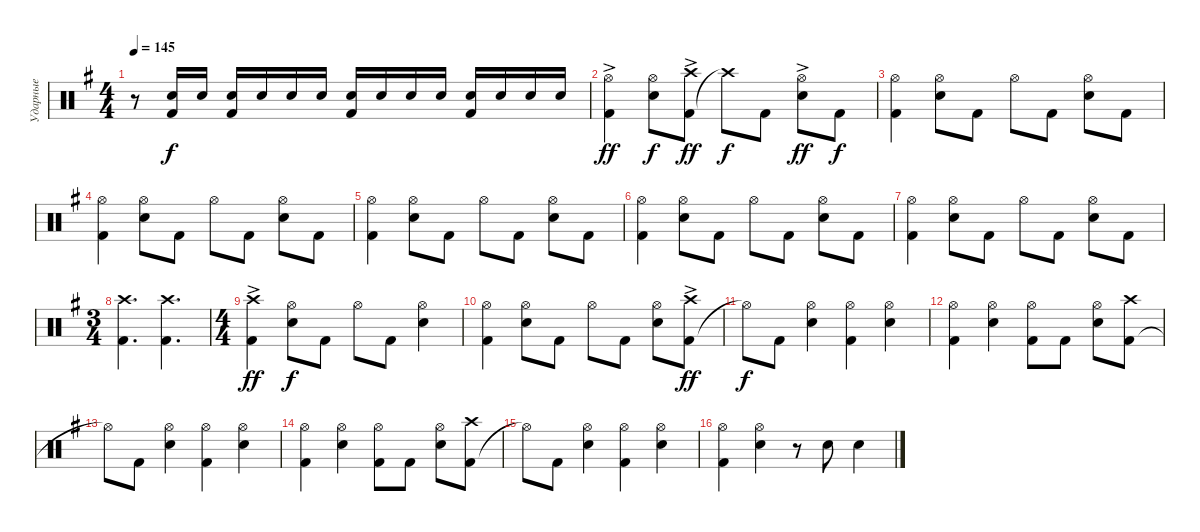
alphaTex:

\track ("Ударные" "Ударные") {instrument percussion}
\staff {score}
\articulation defaults
\ts (4 4)
\tempo 145
\clef neutral
\ks g
r.8{dy f} ("Kick (hit) 2" "Electric Snare (hit)").16 "Electric Snare (hit)".16 ("Kick (hit) 2" "Electric Snare (hit)").16 "Electric Snare (hit)".16 "Electric Snare (hit)".16 "Electric Snare (hit)".16 ("Kick (hit) 2" "Electric Snare (hit)").16 "Electric Snare (hit)".16 "Electric Snare (hit)".16 "Electric Snare (hit)".16 ("Kick (hit) 2" "Electric Snare (hit)").16 "Electric Snare (hit)".16 "Electric Snare (hit)".16 "Electric Snare (hit)".16 |
("Kick (hit) 2" "Hi-Hat (open)"{ac}).4{dy ff} ("Snare (hit) 2" "Hi-Hat (open)").8{dy f} ("Kick (hit) 2" "Crash high (hit)"{ac}).8{dy ff} "Crash high (hit)"{t}.8{dy f} "Kick (hit) 2".8 ("Snare (hit) 2" "Hi-Hat (open)"{ac}).8{dy ff} "Kick (hit) 2".8{dy f} |
("Kick (hit) 2" "Hi-Hat (open)").4 ("Snare (hit) 2" "Hi-Hat (open)").8 "Kick (hit) 2".8 "Hi-Hat (open)".8 "Kick (hit) 2".8 ("Snare (hit) 2" "Hi-Hat (open)").8 "Kick (hit) 2".8 |
("Kick (hit) 2" "Hi-Hat (open)").4 ("Snare (hit) 2" "Hi-Hat (open)").8 "Kick (hit) 2".8 "Hi-Hat (open)".8 "Kick (hit) 2".8 ("Snare (hit) 2" "Hi-Hat (open)").8 "Kick (hit) 2".8 |
("Kick (hit) 2" "Hi-Hat (open)").4 ("Snare (hit) 2" "Hi-Hat (open)").8 "Kick (hit) 2".8 "Hi-Hat (open)".8 "Kick (hit) 2".8 ("Snare (hit) 2" "Hi-Hat (open)").8 "Kick (hit) 2".8 |
("Kick (hit) 2" "Hi-Hat (open)").4 ("Snare (hit) 2" "Hi-Hat (open)").8 "Kick (hit) 2".8 "Hi-Hat (open)".8 "Kick (hit) 2".8 ("Snare (hit) 2" "Hi-Hat (open)").8 "Kick (hit) 2".8 |
("Kick (hit) 2" "Hi-Hat (open)").4 ("Snare (hit) 2" "Hi-Hat (open)").8 "Kick (hit) 2".8 "Hi-Hat (open)".8 "Kick (hit) 2".8 ("Snare (hit) 2" "Hi-Hat (open)").8 "Kick (hit) 2".8 |
\ts (3 4)
("Kick (hit) 2" "Crash high (hit)").4{d} ("Kick (hit) 2" "Crash high (hit)").4{d} |
\ts (4 4)
("Kick (hit) 2" "Crash high (hit)"{ac}).4{dy ff} ("Snare (hit) 2" "Hi-Hat (open)").8{dy f} "Kick (hit) 2".8 "Hi-Hat (open)".8 "Kick (hit) 2".8 ("Snare (hit) 2" "Hi-Hat (open)").4 |
("Kick (hit) 2" "Hi-Hat (open)").4 ("Snare (hit) 2" "Hi-Hat (open)").8 "Kick (hit) 2".8 "Hi-Hat (open)".8 "Kick (hit) 2".8 ("Snare (hit) 2" "Hi-Hat (open)").8 ("Kick (hit) 2" "Crash high (hit)"{ac}).8{dy ff} |
"Hi-Hat (open)"{t}.8{dy f} "Kick (hit) 2".8 ("Snare (hit) 2" "Hi-Hat (open)").4 ("Kick (hit) 2" "Hi-Hat (open)").4 ("Snare (hit) 2" "Hi-Hat (open)").4 |
("Kick (hit) 2" "Hi-Hat (open)").4 ("Snare (hit) 2" "Hi-Hat (open)").4 ("Kick (hit) 2" "Hi-Hat (open)").8 "Kick (hit) 2".8 ("Snare (hit) 2" "Hi-Hat (open)").8 ("Kick (hit) 2" "Crash high (hit)").8 |
"Hi-Hat (open)"{t}.8 "Kick (hit) 2".8 ("Snare (hit) 2" "Hi-Hat (open)").4 ("Kick (hit) 2" "Hi-Hat (open)").4 ("Snare (hit) 2" "Hi-Hat (open)").4 |
("Kick (hit) 2" "Hi-Hat (open)").4 ("Snare (hit) 2" "Hi-Hat (open)").4 ("Kick (hit) 2" "Hi-Hat (open)").8 "Kick (hit) 2".8 ("Snare (hit) 2" "Hi-Hat (open)").8 ("Kick (hit) 2" "Crash high (hit)").8 |
"Hi-Hat (open)"{t}.8 "Kick (hit) 2".8 ("Snare (hit) 2" "Hi-Hat (open)").4 ("Kick (hit) 2" "Hi-Hat (open)").4 ("Snare (hit) 2" "Hi-Hat (open)").4 |
("Kick (hit) 2" "Hi-Hat (open)").4 ("Snare (hit) 2" "Hi-Hat (open)").4 r.8 "Snare (hit) 2".8 "Snare (hit) 2".4
